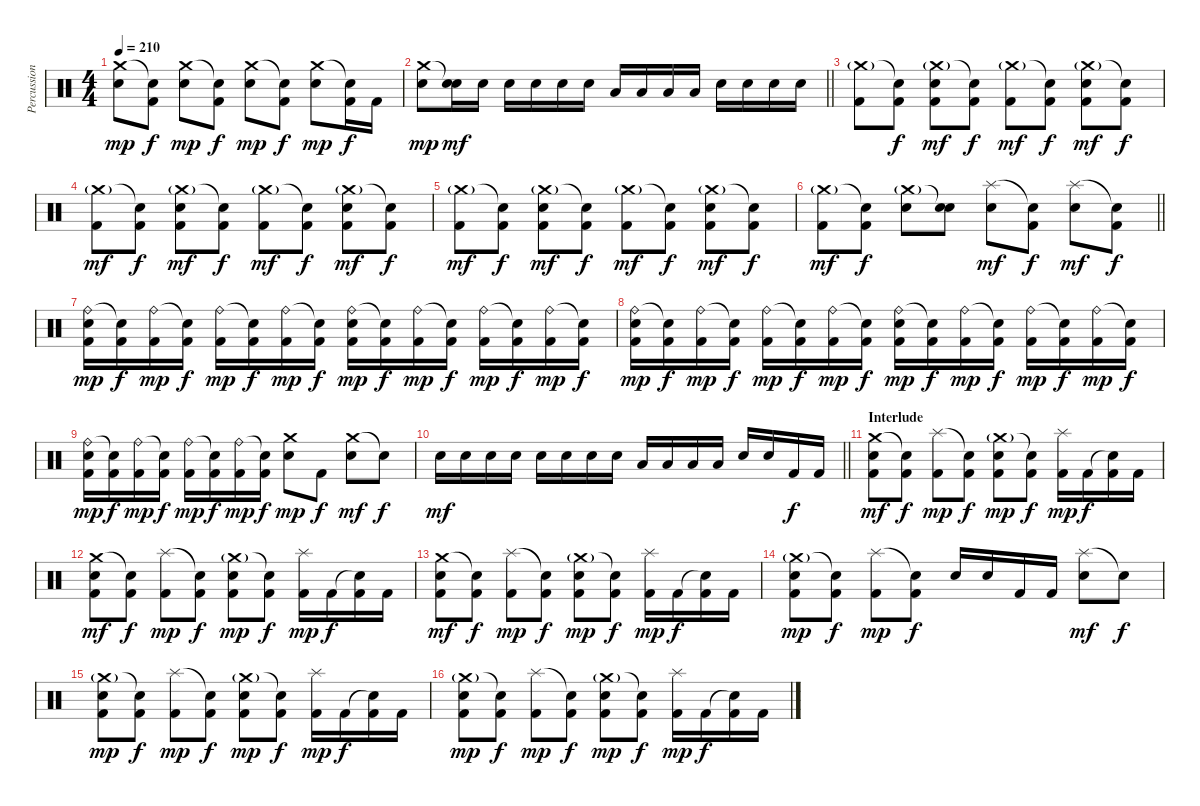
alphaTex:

\track ("Percussion" "Percussion") {instrument percussion}
\staff {score}
\articulation defaults
\ts (4 4)
\tempo 210
\clef neutral
\ks c
("Crash medium (hit)" "Electric Snare (hit)").8{dy mp} ("Snare (hit)"{t} "Kick (hit) 2").8{dy f} ("Crash medium (hit)" "Electric Snare (hit)").8{dy mp} ("Snare (hit)"{t} "Kick (hit) 2").8{dy f} ("Crash medium (hit)" "Electric Snare (hit)").8{dy mp} ("Snare (hit)"{t} "Kick (hit) 2").8{dy f} ("Crash medium (hit)" "Electric Snare (hit)").8{dy mp} ("Snare (hit)"{t} "Kick (hit) 2").16{dy f} "Kick (hit) 2".16 |
\barLineRight lightlight
("Crash medium (hit)" "Electric Snare (hit)").8{dy mp} ("Snare (hit)"{t} "Electric Snare (hit)").16{dy mf} "Electric Snare (hit)".16 "Electric Snare (hit)".16 "Electric Snare (hit)".16 "Electric Snare (hit)".16 "Electric Snare (hit)".16 "Low Tom (hit)".16 "Low Tom (hit)".16 "Low Tom (hit)".16 "Low Tom (hit)".16 "Electric Snare (hit)".16 "Electric Snare (hit)".16 "Electric Snare (hit)".16 "Electric Snare (hit)".16 |
("Crash medium (hit)"{g} "Kick (hit) 2").8 ("Snare (hit)"{t} "Kick (hit) 2").8{dy f} ("Crash medium (hit)"{g} "Electric Snare (hit)" "Kick (hit) 2").8{dy mf} ("Snare (hit)"{t} "Kick (hit) 2").8{dy f} ("Crash medium (hit)"{g} "Kick (hit) 2").8{dy mf} ("Snare (hit)"{t} "Kick (hit) 2").8{dy f} ("Crash medium (hit)"{g} "Electric Snare (hit)" "Kick (hit) 2").8{dy mf} ("Snare (hit)"{t} "Kick (hit) 2").8{dy f} |
("Crash medium (hit)"{g} "Kick (hit) 2").8{dy mf} ("Snare (hit)"{t} "Kick (hit) 2").8{dy f} ("Crash medium (hit)"{g} "Electric Snare (hit)" "Kick (hit) 2").8{dy mf} ("Snare (hit)"{t} "Kick (hit) 2").8{dy f} ("Crash medium (hit)"{g} "Kick (hit) 2").8{dy mf} ("Snare (hit)"{t} "Kick (hit) 2").8{dy f} ("Crash medium (hit)"{g} "Electric Snare (hit)" "Kick (hit) 2").8{dy mf} ("Snare (hit)"{t} "Kick (hit) 2").8{dy f} |
("Crash medium (hit)"{g} "Kick (hit) 2").8{dy mf} ("Snare (hit)"{t} "Kick (hit) 2").8{dy f} ("Crash medium (hit)"{g} "Electric Snare (hit)" "Kick (hit) 2").8{dy mf} ("Snare (hit)"{t} "Kick (hit) 2").8{dy f} ("Crash medium (hit)"{g} "Kick (hit) 2").8{dy mf} ("Snare (hit)"{t} "Kick (hit) 2").8{dy f} ("Crash medium (hit)"{g} "Electric Snare (hit)" "Kick (hit) 2").8{dy mf} ("Snare (hit)"{t} "Kick (hit) 2").8{dy f} |
\barLineRight lightlight
("Crash medium (hit)"{g} "Kick (hit) 2").8{dy mf} ("Snare (hit)"{t} "Kick (hit) 2").8{dy f} ("Crash medium (hit)"{g} "Electric Snare (hit)").8 ("Snare (hit)"{t} "Electric Snare (hit)").8 ("Splash (hit)" "Electric Snare (hit)").8{dy mf} ("Snare (hit)"{t} "Kick (hit) 2").8{dy f} ("Splash (hit)" "Electric Snare (hit)").8{dy mf} ("Snare (hit)"{t} "Kick (hit) 2").8{dy f} |
("Ride (bell)" "Electric Snare (hit)" "Kick (hit) 2").16{dy mp} ("Snare (hit)"{t} "Kick (hit) 2").16{dy f} ("Ride (bell)" "Kick (hit) 2").16{dy mp} ("Snare (hit)"{t} "Kick (hit) 2").16{dy f} ("Ride (bell)" "Kick (hit) 2").16{dy mp} ("Snare (hit)"{t} "Kick (hit) 2").16{dy f} ("Ride (bell)" "Kick (hit) 2").16{dy mp} ("Snare (hit)"{t} "Kick (hit) 2").16{dy f} ("Ride (bell)" "Electric Snare (hit)" "Kick (hit) 2").16{dy mp} ("Snare (hit)"{t} "Kick (hit) 2").16{dy f} ("Ride (bell)" "Kick (hit) 2").16{dy mp} ("Snare (hit)"{t} "Kick (hit) 2").16{dy f} ("Ride (bell)" "Kick (hit) 2").16{dy mp} ("Snare (hit)"{t} "Kick (hit) 2").16{dy f} ("Ride (bell)" "Kick (hit) 2").16{dy mp} ("Snare (hit)"{t} "Kick (hit) 2").16{dy f} |
("Ride (bell)" "Electric Snare (hit)" "Kick (hit) 2").16{dy mp} ("Snare (hit)"{t} "Kick (hit) 2").16{dy f} ("Ride (bell)" "Kick (hit) 2").16{dy mp} ("Snare (hit)"{t} "Kick (hit) 2").16{dy f} ("Ride (bell)" "Kick (hit) 2").16{dy mp} ("Snare (hit)"{t} "Kick (hit) 2").16{dy f} ("Ride (bell)" "Kick (hit) 2").16{dy mp} ("Snare (hit)"{t} "Kick (hit) 2").16{dy f} ("Ride (bell)" "Electric Snare (hit)" "Kick (hit) 2").16{dy mp} ("Snare (hit)"{t} "Kick (hit) 2").16{dy f} ("Ride (bell)" "Kick (hit) 2").16{dy mp} ("Snare (hit)"{t} "Kick (hit) 2").16{dy f} ("Ride (bell)" "Kick (hit) 2").16{dy mp} ("Snare (hit)"{t} "Kick (hit) 2").16{dy f} ("Ride (bell)" "Kick (hit) 2").16{dy mp} ("Snare (hit)"{t} "Kick (hit) 2").16{dy f} |
("Ride (bell)" "Electric Snare (hit)" "Kick (hit) 2").16{dy mp} ("Snare (hit)"{t} "Kick (hit) 2").16{dy f} ("Ride (bell)" "Kick (hit) 2").16{dy mp} ("Snare (hit)"{t} "Kick (hit) 2").16{dy f} ("Ride (bell)" "Kick (hit) 2").16{dy mp} ("Snare (hit)"{t} "Kick (hit) 2").16{dy f} ("Ride (bell)" "Kick (hit) 2").16{dy mp} ("Snare (hit)"{t} "Kick (hit) 2").16{dy f} ("Crash medium (hit)" "Electric Snare (hit)").8{dy mp} "Kick (hit) 2".8{dy f} ("Crash medium (hit)" "Electric Snare (hit)").8{dy mf} "Snare (hit)"{t}.8{dy f} |
\barLineRight lightlight "Electric Snare (hit)".16{dy mf} "Electric Snare (hit)".16 "Electric Snare (hit)".16 "Electric Snare (hit)".16 "Electric Snare (hit)".16 "Electric Snare (hit)".16 "Electric Snare (hit)".16 "Electric Snare (hit)".16 "Low Tom (hit)".16 "Low Tom (hit)".16 "Low Tom (hit)".16 "Low Tom (hit)".16 "Electric Snare (hit)".16 "Electric Snare (hit)".16 "Kick (hit) 2".16{dy f} "Kick (hit) 2".16
|
\section ("" "Interlude")
("Crash medium (hit)" "Electric Snare (hit)" "Kick (hit) 2").8{dy mf} ("Snare (hit)"{t} "Kick (hit) 2").8{dy f} ("Splash (hit)" "Kick (hit) 2").8{dy mp} ("Snare (hit)"{t} "Kick (hit) 2").8{dy f} ("Crash medium (hit)"{g} "Electric Snare (hit)" "Kick (hit) 2").8{dy mp} ("Snare (hit)"{t} "Kick (hit) 2").8{dy f} ("Splash (hit)" "Kick (hit) 2").16{dy mp} "Kick (hit) 2".16{dy f} ("Snare (hit)"{t} "Kick (hit) 2").16 "Kick (hit) 2".16 |
("Crash medium (hit)" "Electric Snare (hit)" "Kick (hit) 2").8{dy mf} ("Snare (hit)"{t} "Kick (hit) 2").8{dy f} ("Splash (hit)" "Kick (hit) 2").8{dy mp} ("Snare (hit)"{t} "Kick (hit) 2").8{dy f} ("Crash medium (hit)"{g} "Electric Snare (hit)" "Kick (hit) 2").8{dy mp} ("Snare (hit)"{t} "Kick (hit) 2").8{dy f} ("Splash (hit)" "Kick (hit) 2").16{dy mp} "Kick (hit) 2".16{dy f} ("Snare (hit)"{t} "Kick (hit) 2").16 "Kick (hit) 2".16 |
("Crash medium (hit)" "Electric Snare (hit)" "Kick (hit) 2").8{dy mf} ("Snare (hit)"{t} "Kick (hit) 2").8{dy f} ("Splash (hit)" "Kick (hit) 2").8{dy mp} ("Snare (hit)"{t} "Kick (hit) 2").8{dy f} ("Crash medium (hit)"{g} "Electric Snare (hit)" "Kick (hit) 2").8{dy mp} ("Snare (hit)"{t} "Kick (hit) 2").8{dy f} ("Splash (hit)" "Kick (hit) 2").16{dy mp} "Kick (hit) 2".16{dy f} ("Snare (hit)"{t} "Kick (hit) 2").16 "Kick (hit) 2".16 |
("Crash medium (hit)"{g} "Electric Snare (hit)" "Kick (hit) 2").8{dy mp} ("Snare (hit)"{t} "Kick (hit) 2").8{dy f} ("Splash (hit)" "Kick (hit) 2").8{dy mp} ("Snare (hit)"{t} "Kick (hit) 2").8{dy f} "Electric Snare (hit)".16 "Electric Snare (hit)".16 "Kick (hit) 2".16 "Kick (hit) 2".16 ("Splash (hit)" "Electric Snare (hit)").8{dy mf} "Snare (hit)"{t}.8{dy f} |
("Crash medium (hit)"{g} "Electric Snare (hit)" "Kick (hit) 2").8{dy mp} ("Snare (hit)"{t} "Kick (hit) 2").8{dy f} ("Splash (hit)" "Kick (hit) 2").8{dy mp} ("Snare (hit)"{t} "Kick (hit) 2").8{dy f} ("Crash medium (hit)"{g} "Electric Snare (hit)" "Kick (hit) 2").8{dy mp} ("Snare (hit)"{t} "Kick (hit) 2").8{dy f} ("Splash (hit)" "Kick (hit) 2").16{dy mp} "Kick (hit) 2".16{dy f} ("Snare (hit)"{t} "Kick (hit) 2").16 "Kick (hit) 2".16 |
("Crash medium (hit)"{g} "Electric Snare (hit)" "Kick (hit) 2").8{dy mp} ("Snare (hit)"{t} "Kick (hit) 2").8{dy f} ("Splash (hit)" "Kick (hit) 2").8{dy mp} ("Snare (hit)"{t} "Kick (hit) 2").8{dy f} ("Crash medium (hit)"{g} "Electric Snare (hit)" "Kick (hit) 2").8{dy mp} ("Snare (hit)"{t} "Kick (hit) 2").8{dy f} ("Splash (hit)" "Kick (hit) 2").16{dy mp} "Kick (hit) 2".16{dy f} ("Snare (hit)"{t} "Kick (hit) 2").16 "Kick (hit) 2".16
